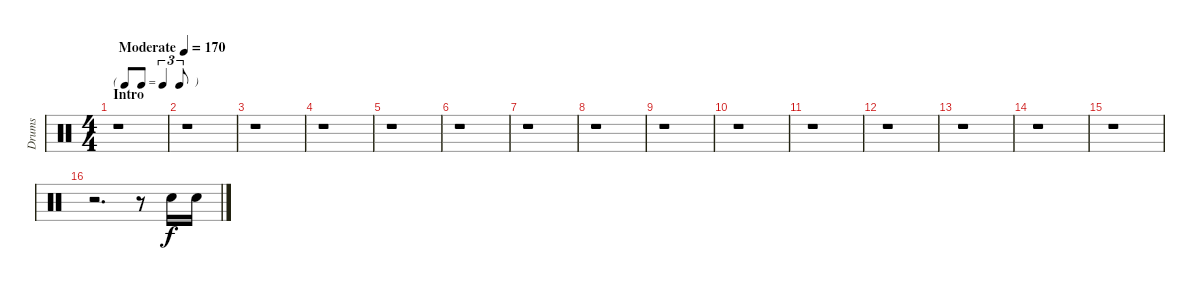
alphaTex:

\track ("Drums" "Drums") {instrument percussion}
\staff {score}
\articulation defaults
\ts (4 4)
\tf triplet8th
\section ("" "Intro")
\tempo (170 "Moderate")
\clef neutral
\ks c
r.1{dy f} |
r.1 |
r.1 |
r.1 |
r.1 |
r.1 |
r.1 |
r.1 |
r.1 |
r.1 |
r.1 |
r.1 |
r.1 |
r.1 |
r.1 |
r.2{d} r.8 "Snare (hit) 2".16 "Snare (hit) 2".16
